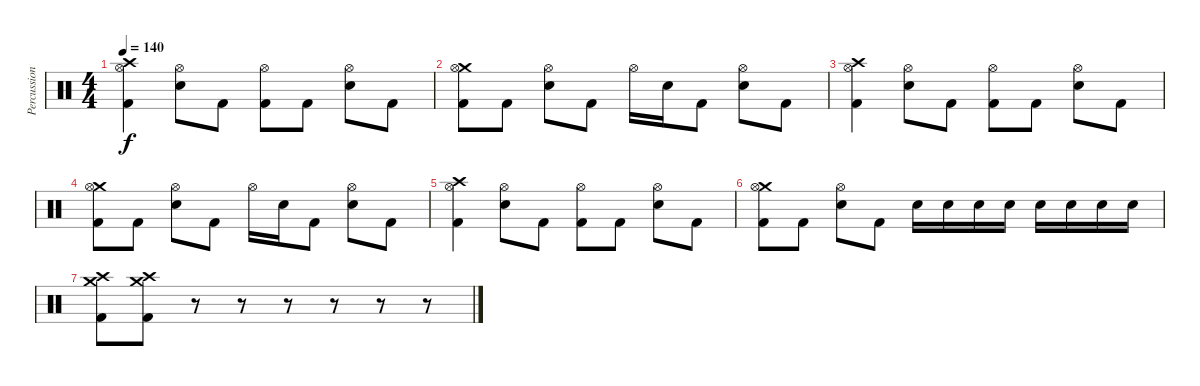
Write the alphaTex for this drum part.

\track ("Percussion" "Percussion") {instrument percussion}
\staff {score}
\articulation defaults
\ts (4 4)
\tempo 140
\clef neutral
\ks c
("Crash high (hit)" "Kick (hit) 2" "Hi-Hat (open)").4{dy f} ("Electric Snare (hit)" "Hi-Hat (open)").8 "Kick (hit) 2".8 ("Kick (hit) 2" "Hi-Hat (open)").8 "Kick (hit) 2".8 ("Electric Snare (hit)" "Hi-Hat (open)").8 "Kick (hit) 2".8 |
("Crash medium (hit)" "Kick (hit) 2" "Hi-Hat (open)").8 "Kick (hit) 2".8 ("Electric Snare (hit)" "Hi-Hat (open)").8 "Kick (hit) 2".8 "Hi-Hat (open)".16 "Electric Snare (hit)".16 "Kick (hit) 2".8 ("Electric Snare (hit)" "Hi-Hat (open)").8 "Kick (hit) 2".8 |
("Crash high (hit)" "Kick (hit) 2" "Hi-Hat (open)").4 ("Electric Snare (hit)" "Hi-Hat (open)").8 "Kick (hit) 2".8 ("Kick (hit) 2" "Hi-Hat (open)").8 "Kick (hit) 2".8 ("Electric Snare (hit)" "Hi-Hat (open)").8 "Kick (hit) 2".8 |
("Crash medium (hit)" "Kick (hit) 2" "Hi-Hat (open)").8 "Kick (hit) 2".8 ("Electric Snare (hit)" "Hi-Hat (open)").8 "Kick (hit) 2".8 "Hi-Hat (open)".16 "Electric Snare (hit)".16 "Kick (hit) 2".8 ("Electric Snare (hit)" "Hi-Hat (open)").8 "Kick (hit) 2".8 |
("Crash high (hit)" "Kick (hit) 2" "Hi-Hat (open)").4 ("Electric Snare (hit)" "Hi-Hat (open)").8 "Kick (hit) 2".8 ("Kick (hit) 2" "Hi-Hat (open)").8 "Kick (hit) 2".8 ("Electric Snare (hit)" "Hi-Hat (open)").8 "Kick (hit) 2".8 |
("Crash medium (hit)" "Kick (hit) 2" "Hi-Hat (open)").8 "Kick (hit) 2".8 ("Electric Snare (hit)" "Hi-Hat (open)").8 "Kick (hit) 2".8 "Electric Snare (hit)".16 "Electric Snare (hit)".16 "Electric Snare (hit)".16 "Electric Snare (hit)".16 "Electric Snare (hit)".16 "Electric Snare (hit)".16 "Electric Snare (hit)".16 "Electric Snare (hit)".16 |
("Crash medium (hit)" "Crash high (hit)" "Kick (hit) 2").8 ("Crash medium (hit)" "Crash high (hit)" "Kick (hit) 2").8 r.8 r.8 r.8 r.8 r.8 r.8
